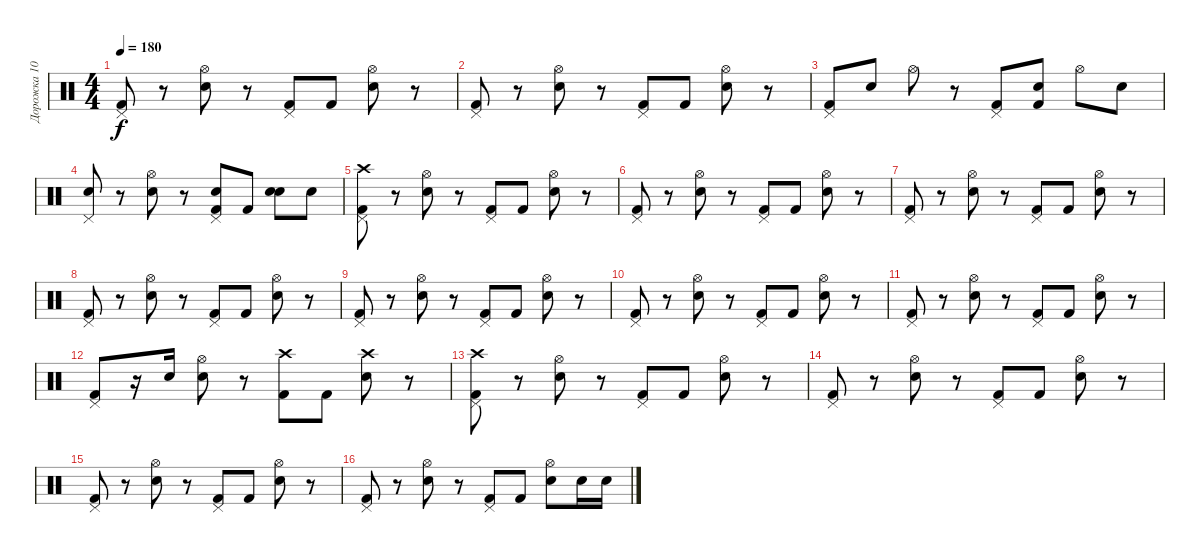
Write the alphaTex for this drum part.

\track ("Дорожка 10" "Дорожка 10") {instrument percussion}
\staff {score}
\articulation defaults
\ts (4 4)
\tempo 180
\clef neutral
\ks c
("Kick (hit) 2" "Pedal Hi-Hat (hit)").8{dy f} r.8 ("Snare (hit) 2" "Hi-Hat (open)").8 r.8 ("Kick (hit) 2" "Pedal Hi-Hat (hit)").8 "Kick (hit) 2".8 ("Snare (hit) 2" "Hi-Hat (open)").8 r.8 |
("Kick (hit) 2" "Pedal Hi-Hat (hit)").8 r.8 ("Snare (hit) 2" "Hi-Hat (open)").8 r.8 ("Kick (hit) 2" "Pedal Hi-Hat (hit)").8 "Kick (hit) 2".8 ("Snare (hit) 2" "Hi-Hat (open)").8 r.8 |
("Kick (hit) 2" "Pedal Hi-Hat (hit)").8 "Snare (hit) 2".8 "Hi-Hat (open)".8 r.8 ("Kick (hit) 2" "Pedal Hi-Hat (hit)").8 ("Snare (hit) 2" "Kick (hit) 2").8 "Hi-Hat (open)".8 "Snare (hit) 2".8 |
("Snare (hit) 2" "Pedal Hi-Hat (hit)").8 r.8 ("Snare (hit) 2" "Hi-Hat (open)").8 r.8 ("Snare (hit) 2" "Kick (hit) 2" "Pedal Hi-Hat (hit)").8 "Kick (hit) 2".8 ("Snare (hit) 2" "Electric Snare (hit)").8 "Snare (hit) 2".8 |
("Kick (hit) 2" "Crash high (hit)" "Pedal Hi-Hat (hit)").8 r.8 ("Snare (hit) 2" "Hi-Hat (open)").8 r.8 ("Kick (hit) 2" "Pedal Hi-Hat (hit)").8 "Kick (hit) 2".8 ("Snare (hit) 2" "Hi-Hat (open)").8 r.8 |
("Kick (hit) 2" "Pedal Hi-Hat (hit)").8 r.8 ("Snare (hit) 2" "Hi-Hat (open)").8 r.8 ("Kick (hit) 2" "Pedal Hi-Hat (hit)").8 "Kick (hit) 2".8 ("Snare (hit) 2" "Hi-Hat (open)").8 r.8 |
("Kick (hit) 2" "Pedal Hi-Hat (hit)").8 r.8 ("Snare (hit) 2" "Hi-Hat (open)").8 r.8 ("Kick (hit) 2" "Pedal Hi-Hat (hit)").8 "Kick (hit) 2".8 ("Snare (hit) 2" "Hi-Hat (open)").8 r.8 |
("Kick (hit) 2" "Pedal Hi-Hat (hit)").8 r.8 ("Snare (hit) 2" "Hi-Hat (open)").8 r.8 ("Kick (hit) 2" "Pedal Hi-Hat (hit)").8 "Kick (hit) 2".8 ("Snare (hit) 2" "Hi-Hat (open)").8 r.8 |
("Kick (hit) 2" "Pedal Hi-Hat (hit)").8 r.8 ("Snare (hit) 2" "Hi-Hat (open)").8 r.8 ("Kick (hit) 2" "Pedal Hi-Hat (hit)").8 "Kick (hit) 2".8 ("Snare (hit) 2" "Hi-Hat (open)").8 r.8 |
("Kick (hit) 2" "Pedal Hi-Hat (hit)").8 r.8 ("Snare (hit) 2" "Hi-Hat (open)").8 r.8 ("Kick (hit) 2" "Pedal Hi-Hat (hit)").8 "Kick (hit) 2".8 ("Snare (hit) 2" "Hi-Hat (open)").8 r.8 |
("Kick (hit) 2" "Pedal Hi-Hat (hit)").8 r.8 ("Snare (hit) 2" "Hi-Hat (open)").8 r.8 ("Kick (hit) 2" "Pedal Hi-Hat (hit)").8 "Kick (hit) 2".8 ("Snare (hit) 2" "Hi-Hat (open)").8 r.8 |
("Kick (hit) 2" "Pedal Hi-Hat (hit)").8 r.16 "Snare (hit) 2".16 ("Snare (hit) 2" "Hi-Hat (open)").8 r.8 ("Kick (hit) 2" "Crash high (hit)").8 "Kick (hit) 2".8 ("Snare (hit) 2" "Crash high (hit)").8 r.8 |
("Kick (hit) 2" "Crash high (hit)" "Pedal Hi-Hat (hit)").8 r.8 ("Snare (hit) 2" "Hi-Hat (open)").8 r.8 ("Kick (hit) 2" "Pedal Hi-Hat (hit)").8 "Kick (hit) 2".8 ("Snare (hit) 2" "Hi-Hat (open)").8 r.8 |
("Kick (hit) 2" "Pedal Hi-Hat (hit)").8 r.8 ("Snare (hit) 2" "Hi-Hat (open)").8 r.8 ("Kick (hit) 2" "Pedal Hi-Hat (hit)").8 "Kick (hit) 2".8 ("Snare (hit) 2" "Hi-Hat (open)").8 r.8 |
("Kick (hit) 2" "Pedal Hi-Hat (hit)").8 r.8 ("Snare (hit) 2" "Hi-Hat (open)").8 r.8 ("Kick (hit) 2" "Pedal Hi-Hat (hit)").8 "Kick (hit) 2".8 ("Snare (hit) 2" "Hi-Hat (open)").8 r.8 |
("Kick (hit) 2" "Pedal Hi-Hat (hit)").8 r.8 ("Snare (hit) 2" "Hi-Hat (open)").8 r.8 ("Kick (hit) 2" "Pedal Hi-Hat (hit)").8 "Kick (hit) 2".8 ("Snare (hit) 2" "Hi-Hat (open)").8 "Snare (hit) 2".16 "Snare (hit) 2".16
